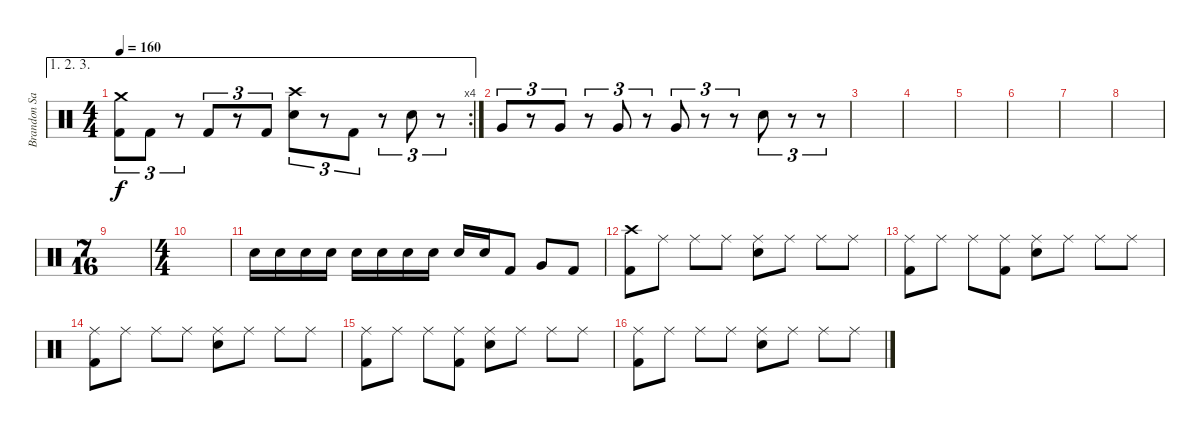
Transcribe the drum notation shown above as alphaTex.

\track ("Brandon Saller" "Brandon Sa") {instrument percussion}
\staff {score}
\articulation defaults
\ae (1 2 3)
\rc 4
\ts (4 4)
\tempo 160
\clef neutral
\ks c
("Crash medium (hit)" "Kick (hit) 2").8{tu (3 2) dy f} "Kick (hit) 2".8{tu (3 2)} r.8{tu (3 2)} "Kick (hit) 2".8{tu (3 2)} r.8{tu (3 2)} "Kick (hit) 2".8{tu (3 2)} ("Crash high (hit)" "Electric Snare (hit)").8{tu (3 2)} r.8{tu (3 2)} "Kick (hit) 2".8{tu (3 2)} r.8{tu (3 2)} "Electric Snare (hit)".8{tu (3 2)} r.8{tu (3 2)} |
"Very Low Tom (hit)".8{tu (3 2)} r.8{tu (3 2)} "Very Low Tom (hit)".8{tu (3 2)} r.8{tu (3 2)} "Very Low Tom (hit)".8{tu (3 2)} r.8{tu (3 2)} "Very Low Tom (hit)".8{tu (3 2)} r.8{tu (3 2)} r.8{tu (3 2)} "Electric Snare (hit)".8{tu (3 2)} r.8{tu (3 2)} r.8{tu (3 2)} |
|
|
|
|
|
|
\ts (7 16)
|
\ts (4 4)
|
"Electric Snare (hit)".16 "Electric Snare (hit)".16 "Electric Snare (hit)".16 "Electric Snare (hit)".16 "Electric Snare (hit)".16 "Electric Snare (hit)".16 "Electric Snare (hit)".16 "Electric Snare (hit)".16 "Electric Snare (hit)".16 "Electric Snare (hit)".16 "Kick (hit) 2".8 "Very Low Tom (hit)".8 "Kick (hit) 2".8 |
("Crash high (hit)" "Kick (hit) 2").8 "Ride (middle)".8 "Ride (middle)".8 "Ride (middle)".8 ("Ride (middle)" "Electric Snare (hit)").8 "Ride (middle)".8 "Ride (middle)".8 "Ride (middle)".8 |
("Ride (middle)" "Kick (hit) 2").8 "Ride (middle)".8 "Ride (middle)".8 ("Ride (middle)" "Kick (hit) 2").8 ("Ride (middle)" "Electric Snare (hit)").8 "Ride (middle)".8 "Ride (middle)".8 "Ride (middle)".8 |
("Ride (middle)" "Kick (hit) 2").8 "Ride (middle)".8 "Ride (middle)".8 "Ride (middle)".8 ("Ride (middle)" "Electric Snare (hit)").8 "Ride (middle)".8 "Ride (middle)".8 "Ride (middle)".8 |
("Ride (middle)" "Kick (hit) 2").8 "Ride (middle)".8 "Ride (middle)".8 ("Ride (middle)" "Kick (hit) 2").8 ("Ride (middle)" "Electric Snare (hit)").8 "Ride (middle)".8 "Ride (middle)".8 "Ride (middle)".8 |
("Ride (middle)" "Kick (hit) 2").8 "Ride (middle)".8 "Ride (middle)".8 "Ride (middle)".8 ("Ride (middle)" "Electric Snare (hit)").8 "Ride (middle)".8 "Ride (middle)".8 "Ride (middle)".8
